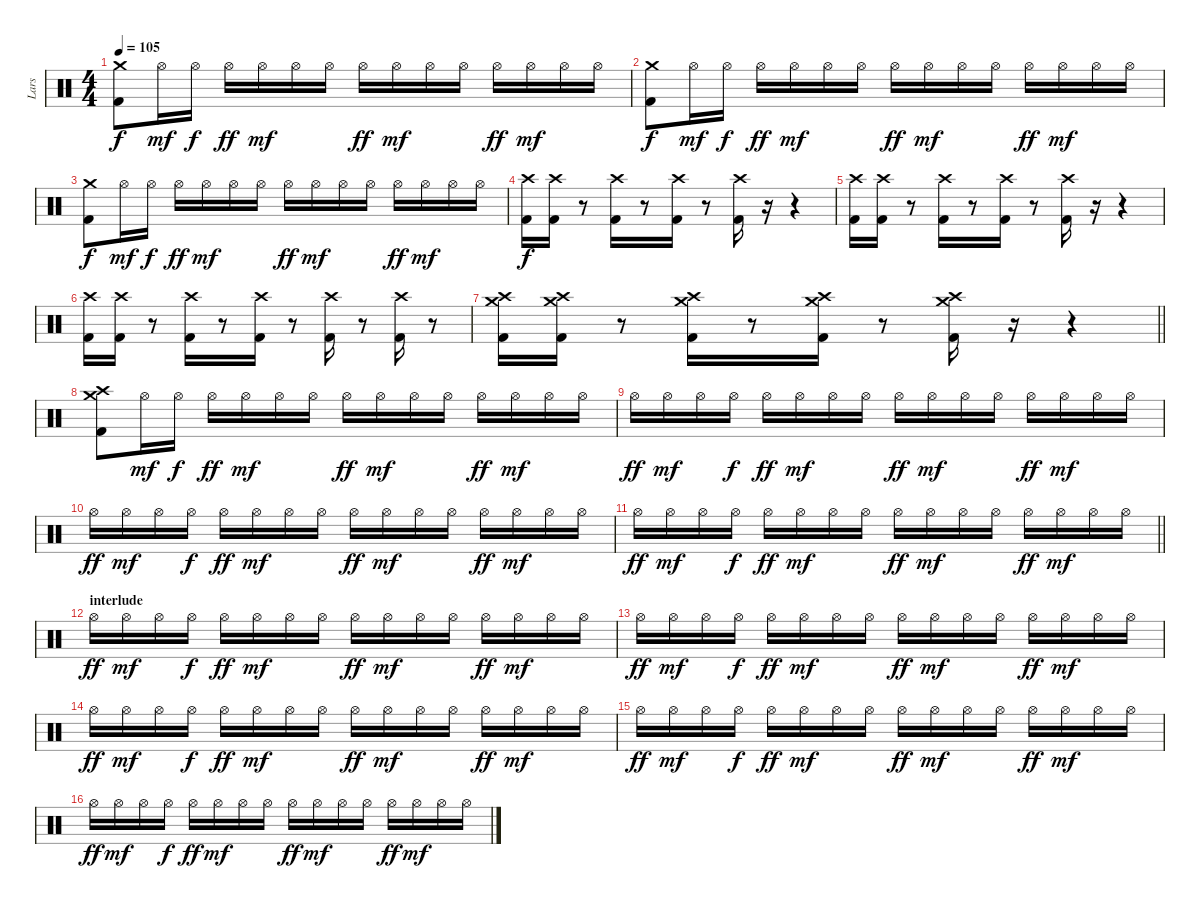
\track ("Lars" "Lars") {instrument percussion}
\staff {score}
\articulation defaults
\ts (4 4)
\tempo 105
\clef neutral
\ks c
("Crash medium (hit)" "Kick (hit) 2").8{dy f} "Hi-Hat (open)".16{dy mf} "Hi-Hat (open)".16{dy f} "Hi-Hat (open)".16{dy ff} "Hi-Hat (open)".16{dy mf} "Hi-Hat (open)".16 "Hi-Hat (open)".16 "Hi-Hat (open)".16{dy ff} "Hi-Hat (open)".16{dy mf} "Hi-Hat (open)".16 "Hi-Hat (open)".16 "Hi-Hat (open)".16{dy ff} "Hi-Hat (open)".16{dy mf} "Hi-Hat (open)".16 "Hi-Hat (open)".16 |
("Crash medium (hit)" "Kick (hit) 2").8{dy f} "Hi-Hat (open)".16{dy mf} "Hi-Hat (open)".16{dy f} "Hi-Hat (open)".16{dy ff} "Hi-Hat (open)".16{dy mf} "Hi-Hat (open)".16 "Hi-Hat (open)".16 "Hi-Hat (open)".16{dy ff} "Hi-Hat (open)".16{dy mf} "Hi-Hat (open)".16 "Hi-Hat (open)".16 "Hi-Hat (open)".16{dy ff} "Hi-Hat (open)".16{dy mf} "Hi-Hat (open)".16 "Hi-Hat (open)".16 |
("Crash medium (hit)" "Kick (hit) 2").8{dy f} "Hi-Hat (open)".16{dy mf} "Hi-Hat (open)".16{dy f} "Hi-Hat (open)".16{dy ff} "Hi-Hat (open)".16{dy mf} "Hi-Hat (open)".16 "Hi-Hat (open)".16 "Hi-Hat (open)".16{dy ff} "Hi-Hat (open)".16{dy mf} "Hi-Hat (open)".16 "Hi-Hat (open)".16 "Hi-Hat (open)".16{dy ff} "Hi-Hat (open)".16{dy mf} "Hi-Hat (open)".16 "Hi-Hat (open)".16 |
("Crash high (hit)" "Kick (hit) 2").16{dy f} ("Crash high (hit)" "Kick (hit) 2").16 r.8 ("Crash high (hit)" "Kick (hit) 2").16 r.8 ("Crash high (hit)" "Kick (hit) 2").16 r.8 ("Crash high (hit)" "Kick (hit) 2").16 r.16 r.4 |
("Crash high (hit)" "Kick (hit) 2").16 ("Crash high (hit)" "Kick (hit) 2").16 r.8 ("Crash high (hit)" "Kick (hit) 2").16 r.8 ("Crash high (hit)" "Kick (hit) 2").16 r.8 ("Crash high (hit)" "Kick (hit) 2").16 r.16 r.4 |
("Crash high (hit)" "Kick (hit) 2").16 ("Crash high (hit)" "Kick (hit) 2").16 r.8 ("Crash high (hit)" "Kick (hit) 2").16 r.8 ("Crash high (hit)" "Kick (hit) 2").16 r.8 ("Crash high (hit)" "Kick (hit) 2").16 r.8 ("Crash high (hit)" "Kick (hit) 2").16 r.8 |
\barLineRight lightlight
("Crash medium (hit)" "Crash high (hit)" "Kick (hit) 2").16 ("Crash medium (hit)" "Crash high (hit)" "Kick (hit) 2").16 r.8 ("Crash medium (hit)" "Crash high (hit)" "Kick (hit) 2").16 r.8 ("Crash medium (hit)" "Crash high (hit)" "Kick (hit) 2").16 r.8 ("Crash medium (hit)" "Crash high (hit)" "Kick (hit) 2").16 r.16 r.4 |
("Crash medium (hit)" "Crash high (hit)" "Kick (hit) 2").8 "Hi-Hat (open)".16{dy mf} "Hi-Hat (open)".16{dy f} "Hi-Hat (open)".16{dy ff} "Hi-Hat (open)".16{dy mf} "Hi-Hat (open)".16 "Hi-Hat (open)".16 "Hi-Hat (open)".16{dy ff} "Hi-Hat (open)".16{dy mf} "Hi-Hat (open)".16 "Hi-Hat (open)".16 "Hi-Hat (open)".16{dy ff} "Hi-Hat (open)".16{dy mf} "Hi-Hat (open)".16 "Hi-Hat (open)".16 |
"Hi-Hat (open)".16{dy ff} "Hi-Hat (open)".16{dy mf} "Hi-Hat (open)".16 "Hi-Hat (open)".16{dy f} "Hi-Hat (open)".16{dy ff} "Hi-Hat (open)".16{dy mf} "Hi-Hat (open)".16 "Hi-Hat (open)".16 "Hi-Hat (open)".16{dy ff} "Hi-Hat (open)".16{dy mf} "Hi-Hat (open)".16 "Hi-Hat (open)".16 "Hi-Hat (open)".16{dy ff} "Hi-Hat (open)".16{dy mf} "Hi-Hat (open)".16 "Hi-Hat (open)".16 |
"Hi-Hat (open)".16{dy ff} "Hi-Hat (open)".16{dy mf} "Hi-Hat (open)".16 "Hi-Hat (open)".16{dy f} "Hi-Hat (open)".16{dy ff} "Hi-Hat (open)".16{dy mf} "Hi-Hat (open)".16 "Hi-Hat (open)".16 "Hi-Hat (open)".16{dy ff} "Hi-Hat (open)".16{dy mf} "Hi-Hat (open)".16 "Hi-Hat (open)".16 "Hi-Hat (open)".16{dy ff} "Hi-Hat (open)".16{dy mf} "Hi-Hat (open)".16 "Hi-Hat (open)".16 |
\barLineRight lightlight "Hi-Hat (open)".16{dy ff} "Hi-Hat (open)".16{dy mf} "Hi-Hat (open)".16 "Hi-Hat (open)".16{dy f} "Hi-Hat (open)".16{dy ff} "Hi-Hat (open)".16{dy mf} "Hi-Hat (open)".16 "Hi-Hat (open)".16 "Hi-Hat (open)".16{dy ff} "Hi-Hat (open)".16{dy mf} "Hi-Hat (open)".16 "Hi-Hat (open)".16 "Hi-Hat (open)".16{dy ff} "Hi-Hat (open)".16{dy mf} "Hi-Hat (open)".16 "Hi-Hat (open)".16
|
\section ("" "interlude")
"Hi-Hat (open)".16{dy ff} "Hi-Hat (open)".16{dy mf} "Hi-Hat (open)".16 "Hi-Hat (open)".16{dy f} "Hi-Hat (open)".16{dy ff} "Hi-Hat (open)".16{dy mf} "Hi-Hat (open)".16 "Hi-Hat (open)".16 "Hi-Hat (open)".16{dy ff} "Hi-Hat (open)".16{dy mf} "Hi-Hat (open)".16 "Hi-Hat (open)".16 "Hi-Hat (open)".16{dy ff} "Hi-Hat (open)".16{dy mf} "Hi-Hat (open)".16 "Hi-Hat (open)".16 |
"Hi-Hat (open)".16{dy ff} "Hi-Hat (open)".16{dy mf} "Hi-Hat (open)".16 "Hi-Hat (open)".16{dy f} "Hi-Hat (open)".16{dy ff} "Hi-Hat (open)".16{dy mf} "Hi-Hat (open)".16 "Hi-Hat (open)".16 "Hi-Hat (open)".16{dy ff} "Hi-Hat (open)".16{dy mf} "Hi-Hat (open)".16 "Hi-Hat (open)".16 "Hi-Hat (open)".16{dy ff} "Hi-Hat (open)".16{dy mf} "Hi-Hat (open)".16 "Hi-Hat (open)".16 |
"Hi-Hat (open)".16{dy ff} "Hi-Hat (open)".16{dy mf} "Hi-Hat (open)".16 "Hi-Hat (open)".16{dy f} "Hi-Hat (open)".16{dy ff} "Hi-Hat (open)".16{dy mf} "Hi-Hat (open)".16 "Hi-Hat (open)".16 "Hi-Hat (open)".16{dy ff} "Hi-Hat (open)".16{dy mf} "Hi-Hat (open)".16 "Hi-Hat (open)".16 "Hi-Hat (open)".16{dy ff} "Hi-Hat (open)".16{dy mf} "Hi-Hat (open)".16 "Hi-Hat (open)".16 |
"Hi-Hat (open)".16{dy ff} "Hi-Hat (open)".16{dy mf} "Hi-Hat (open)".16 "Hi-Hat (open)".16{dy f} "Hi-Hat (open)".16{dy ff} "Hi-Hat (open)".16{dy mf} "Hi-Hat (open)".16 "Hi-Hat (open)".16 "Hi-Hat (open)".16{dy ff} "Hi-Hat (open)".16{dy mf} "Hi-Hat (open)".16 "Hi-Hat (open)".16 "Hi-Hat (open)".16{dy ff} "Hi-Hat (open)".16{dy mf} "Hi-Hat (open)".16 "Hi-Hat (open)".16 |
"Hi-Hat (open)".16{dy ff} "Hi-Hat (open)".16{dy mf} "Hi-Hat (open)".16 "Hi-Hat (open)".16{dy f} "Hi-Hat (open)".16{dy ff} "Hi-Hat (open)".16{dy mf} "Hi-Hat (open)".16 "Hi-Hat (open)".16 "Hi-Hat (open)".16{dy ff} "Hi-Hat (open)".16{dy mf} "Hi-Hat (open)".16 "Hi-Hat (open)".16 "Hi-Hat (open)".16{dy ff} "Hi-Hat (open)".16{dy mf} "Hi-Hat (open)".16 "Hi-Hat (open)".16
